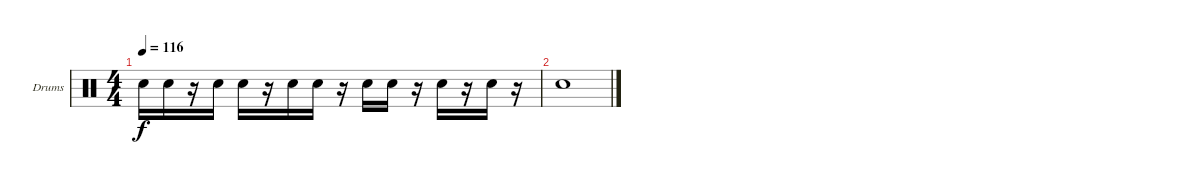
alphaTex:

\bracketExtendMode groupsimilarinstruments
\firstSystemTrackNameOrientation horizontal
\otherSystemsTrackNameOrientation horizontal
\track ("Drumkit" "Drums") {instrument percussion}
\staff {score}
\articulation defaults
\ts (4 4)
\tempo 116
\clef neutral
\ks c "Snare (hit) 2".16{dy f} "Snare (hit) 2".16
r.16 "Snare (hit) 2".16 "Snare (hit) 2".16 r.16 "Snare (hit) 2".16 "Snare (hit) 2".16 r.16 "Snare (hit) 2".16 "Snare (hit) 2".16 r.16 "Snare (hit) 2".16 r.16 "Snare (hit) 2".16 r.16 |
"Snare (hit) 2".1
